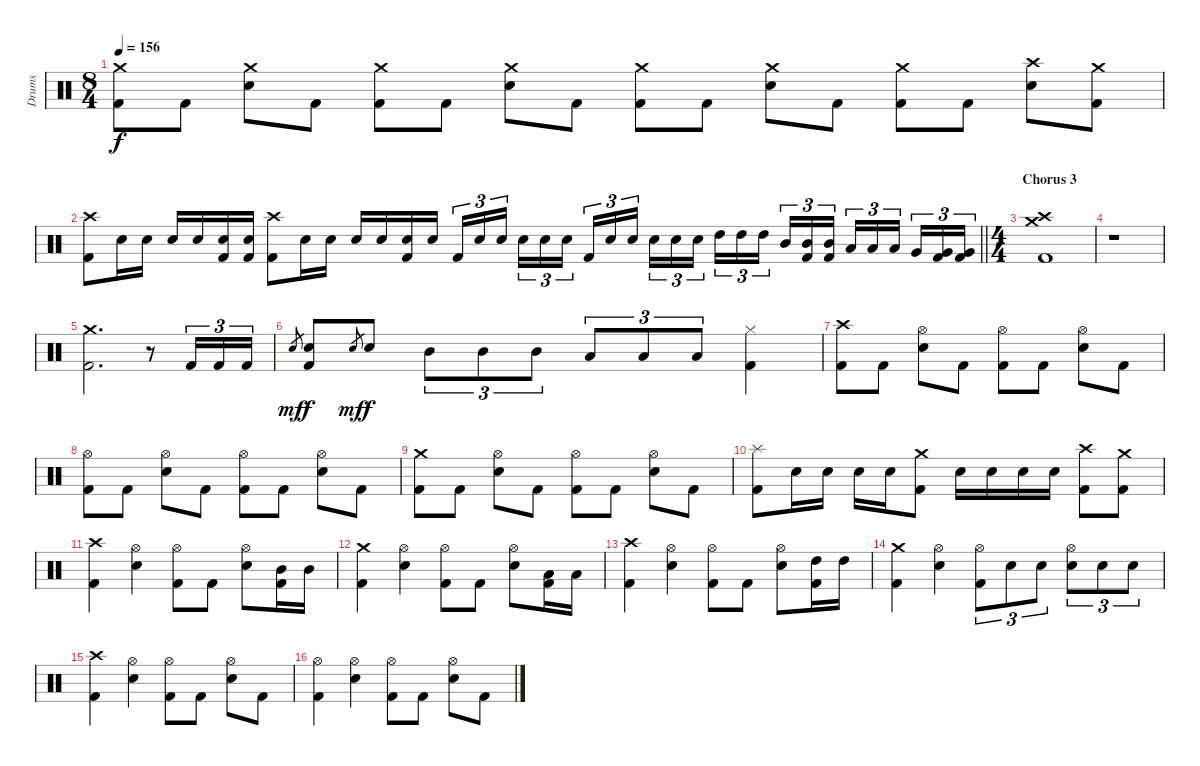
\track ("Drums" "Drums") {instrument percussion}
\staff {score}
\articulation defaults
\ts (8 4)
\tempo 156
\clef neutral
\ks c
("Crash medium (hit)" "Kick (hit) 2").8{dy f} "Kick (hit) 2".8 ("Crash medium (hit)" "Snare (hit) 2").8 "Kick (hit) 2".8 ("Crash medium (hit)" "Kick (hit) 2").8 "Kick (hit) 2".8 ("Crash medium (hit)" "Snare (hit) 2").8 "Kick (hit) 2".8 ("Crash medium (hit)" "Kick (hit) 2").8 "Kick (hit) 2".8 ("Crash medium (hit)" "Snare (hit) 2").8 "Kick (hit) 2".8 ("Crash medium (hit)" "Kick (hit) 2").8 "Kick (hit) 2".8 ("Crash high (hit)" "Snare (hit) 2").8 ("Crash medium (hit)" "Kick (hit) 2").8 |
\barLineRight lightlight
("Crash high (hit)" "Kick (hit) 2").8 "Snare (hit) 2".16 "Snare (hit) 2".16 "Snare (hit) 2".16 "Snare (hit) 2".16 ("Snare (hit) 2" "Kick (hit) 2").16 ("Snare (hit) 2" "Kick (hit) 2").16 ("Crash high (hit)" "Kick (hit) 2").8 "Snare (hit) 2".16 "Snare (hit) 2".16 "Snare (hit) 2".16 "Snare (hit) 2".16 ("Snare (hit) 2" "Kick (hit) 2").16 "Snare (hit) 2".16 "Kick (hit) 2".16{tu (3 2)} "Snare (hit) 2".16{tu (3 2)} "Snare (hit) 2".16{tu (3 2)} "Snare (hit) 2".16{tu (3 2)} "Snare (hit) 2".16{tu (3 2)} "Snare (hit) 2".16{tu (3 2)} "Kick (hit) 2".16{tu (3 2)} "Snare (hit) 2".16{tu (3 2)} "Snare (hit) 2".16{tu (3 2)} "Snare (hit) 2".16{tu (3 2)} "Snare (hit) 2".16{tu (3 2)} "Snare (hit) 2".16{tu (3 2)} "High Tom (hit)".16{tu (3 2)} "High Tom (hit)".16{tu (3 2)} "High Tom (hit)".16{tu (3 2)} "Mid Tom (hit)".16{tu (3 2)} ("Mid Tom (hit)" "Kick (hit) 2").16{tu (3 2)} ("Mid Tom (hit)" "Kick (hit) 2").16{tu (3 2)} "Low Tom (hit)".16{tu (3 2)} "Low Tom (hit)".16{tu (3 2)} "Low Tom (hit)".16{tu (3 2)} "Very Low Tom (hit)".16{tu (3 2)} ("Very Low Tom (hit)" "Kick (hit) 2").16{tu (3 2)} ("Very Low Tom (hit)" "Kick (hit) 2").16{tu (3 2)} |
\ts (4 4)
\section ("" "Chorus 3")
("Crash high (hit)" "Crash medium (hit)" "Kick (hit) 2").1 |
r.1 |
("Crash medium (hit)" "Kick (hit) 2").2{d} r.8 "Kick (hit) 2".16{tu (3 2)} "Kick (hit) 2".16{tu (3 2)} "Kick (hit) 2".16{tu (3 2)} |
"Snare (hit)".8{gr dy mf} ("Snare (hit) 2" "Kick (hit) 2").8{dy f} "Snare (hit)".8{gr dy mf} "Snare (hit) 2".8{dy f} "Mid Tom (hit)".8{tu (3 2)} "Mid Tom (hit)".8{tu (3 2)} "Mid Tom (hit)".8{tu (3 2)} "Low Tom (hit)".8{tu (3 2)} "Low Tom (hit)".8{tu (3 2)} "Low Tom (hit)".8{tu (3 2)} ("Hi-Hat (closed)" "Kick (hit) 2").4 |
("Crash high (hit)" "Kick (hit) 2").8 "Kick (hit) 2".8 ("Hi-Hat (open)" "Snare (hit) 2").8 "Kick (hit) 2".8 ("Hi-Hat (open)" "Kick (hit) 2").8 "Kick (hit) 2".8 ("Hi-Hat (open)" "Snare (hit) 2").8 "Kick (hit) 2".8 |
("Hi-Hat (open)" "Kick (hit) 2").8 "Kick (hit) 2".8 ("Hi-Hat (open)" "Snare (hit) 2").8 "Kick (hit) 2".8 ("Hi-Hat (open)" "Kick (hit) 2").8 "Kick (hit) 2".8 ("Hi-Hat (open)" "Snare (hit) 2").8 "Kick (hit) 2".8 |
("Crash medium (hit)" "Kick (hit) 2").8 "Kick (hit) 2".8 ("Hi-Hat (open)" "Snare (hit) 2").8 "Kick (hit) 2".8 ("Hi-Hat (open)" "Kick (hit) 2").8 "Kick (hit) 2".8 ("Hi-Hat (open)" "Snare (hit) 2").8 "Kick (hit) 2".8 |
("Splash (hit)" "Kick (hit) 2").8 "Snare (hit) 2".16 "Snare (hit) 2".16 "Snare (hit) 2".16 "Snare (hit) 2".16 ("Crash medium (hit)" "Kick (hit) 2").8 "Snare (hit) 2".16 "Snare (hit) 2".16 "Snare (hit) 2".16 "Snare (hit) 2".16 ("Crash high (hit)" "Kick (hit) 2").8 ("Crash medium (hit)" "Kick (hit) 2").8 |
("Crash high (hit)" "Kick (hit) 2").4 ("Hi-Hat (open)" "Snare (hit) 2").4 ("Hi-Hat (open)" "Kick (hit) 2").8 "Kick (hit) 2".8 ("Hi-Hat (open)" "Snare (hit) 2").8 ("Mid Tom (hit)" "Kick (hit) 2").16 "Mid Tom (hit)".16 |
("Crash medium (hit)" "Kick (hit) 2").4 ("Hi-Hat (open)" "Snare (hit) 2").4 ("Hi-Hat (open)" "Kick (hit) 2").8 "Kick (hit) 2".8 ("Hi-Hat (open)" "Snare (hit) 2").8 ("Low Tom (hit)" "Kick (hit) 2").16 "Low Tom (hit)".16 |
("Crash high (hit)" "Kick (hit) 2").4 ("Hi-Hat (open)" "Snare (hit) 2").4 ("Hi-Hat (open)" "Kick (hit) 2").8 "Kick (hit) 2".8 ("Hi-Hat (open)" "Snare (hit) 2").8 ("High Tom (hit)" "Kick (hit) 2").16 "High Tom (hit)".16 |
("Crash medium (hit)" "Kick (hit) 2").4 ("Hi-Hat (open)" "Snare (hit) 2").4 ("Hi-Hat (open)" "Kick (hit) 2").8{tu (3 2)} "Snare (hit) 2".8{tu (3 2)} "Snare (hit) 2".8{tu (3 2)} ("Hi-Hat (open)" "Snare (hit) 2").8{tu (3 2)} "Snare (hit) 2".8{tu (3 2)} "Snare (hit) 2".8{tu (3 2)} |
("Crash high (hit)" "Kick (hit) 2").4 ("Hi-Hat (open)" "Snare (hit) 2").4 ("Hi-Hat (open)" "Kick (hit) 2").8 "Kick (hit) 2".8 ("Hi-Hat (open)" "Snare (hit) 2").8 "Kick (hit) 2".8 |
("Hi-Hat (open)" "Kick (hit) 2").4 ("Hi-Hat (open)" "Snare (hit) 2").4 ("Hi-Hat (open)" "Kick (hit) 2").8 "Kick (hit) 2".8 ("Hi-Hat (open)" "Snare (hit) 2").8 "Kick (hit) 2".8
